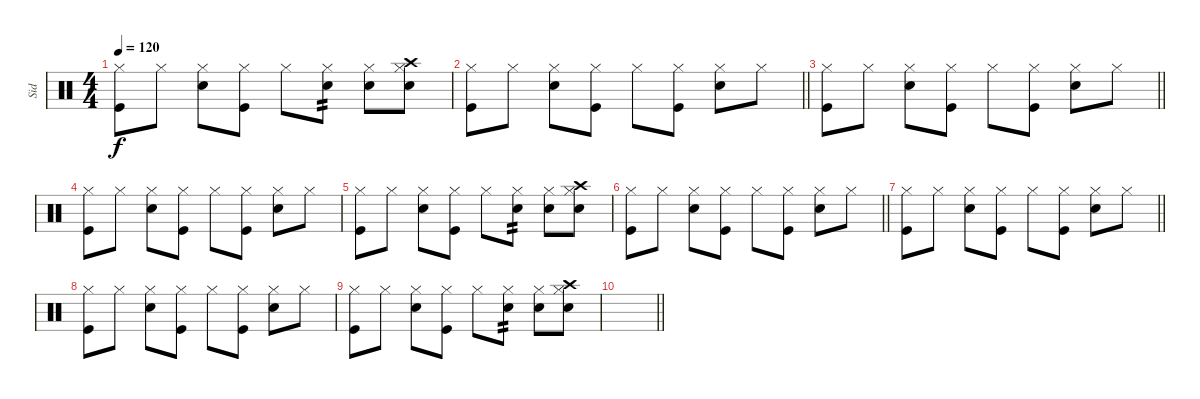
\track ("Sid" "Sid") {instrument percussion}
\staff {score}
\articulation defaults
\ts (4 4)
\tempo 120
\clef neutral
\ks c
("Kick (hit)" "Hi-Hat (closed)").8{dy f} "Hi-Hat (closed)".8 ("Electric Snare (hit)" "Hi-Hat (closed)").8 ("Kick (hit)" "Hi-Hat (closed)").8 "Hi-Hat (closed)".8 ("Snare (hit) 2" "Hi-Hat (closed)").8{tp 2} ("Electric Snare (hit)" "Hi-Hat (closed)").8 ("Snare (hit) 2" "Crash high (hit)" "Hi-Hat (closed)").8 |
\barLineRight lightlight
("Kick (hit)" "Hi-Hat (closed)").8 "Hi-Hat (closed)".8 ("Electric Snare (hit)" "Hi-Hat (closed)").8 ("Kick (hit)" "Hi-Hat (closed)").8 "Hi-Hat (closed)".8 ("Kick (hit)" "Hi-Hat (closed)").8 ("Electric Snare (hit)" "Hi-Hat (closed)").8 "Hi-Hat (closed)".8 |
\barLineRight lightlight
("Kick (hit)" "Hi-Hat (closed)").8 "Hi-Hat (closed)".8 ("Electric Snare (hit)" "Hi-Hat (closed)").8 ("Kick (hit)" "Hi-Hat (closed)").8 "Hi-Hat (closed)".8 ("Kick (hit)" "Hi-Hat (closed)").8 ("Electric Snare (hit)" "Hi-Hat (closed)").8 "Hi-Hat (closed)".8 |
("Kick (hit)" "Hi-Hat (closed)").8 "Hi-Hat (closed)".8 ("Electric Snare (hit)" "Hi-Hat (closed)").8 ("Kick (hit)" "Hi-Hat (closed)").8 "Hi-Hat (closed)".8 ("Kick (hit)" "Hi-Hat (closed)").8 ("Electric Snare (hit)" "Hi-Hat (closed)").8 "Hi-Hat (closed)".8 |
("Kick (hit)" "Hi-Hat (closed)").8 "Hi-Hat (closed)".8 ("Electric Snare (hit)" "Hi-Hat (closed)").8 ("Kick (hit)" "Hi-Hat (closed)").8 "Hi-Hat (closed)".8 ("Snare (hit) 2" "Hi-Hat (closed)").8{tp 2} ("Electric Snare (hit)" "Hi-Hat (closed)").8 ("Snare (hit) 2" "Crash high (hit)" "Hi-Hat (closed)").8 |
\barLineRight lightlight
("Kick (hit)" "Hi-Hat (closed)").8 "Hi-Hat (closed)".8 ("Electric Snare (hit)" "Hi-Hat (closed)").8 ("Kick (hit)" "Hi-Hat (closed)").8 "Hi-Hat (closed)".8 ("Kick (hit)" "Hi-Hat (closed)").8 ("Electric Snare (hit)" "Hi-Hat (closed)").8 "Hi-Hat (closed)".8 |
\barLineRight lightlight
("Kick (hit)" "Hi-Hat (closed)").8 "Hi-Hat (closed)".8 ("Electric Snare (hit)" "Hi-Hat (closed)").8 ("Kick (hit)" "Hi-Hat (closed)").8 "Hi-Hat (closed)".8 ("Kick (hit)" "Hi-Hat (closed)").8 ("Electric Snare (hit)" "Hi-Hat (closed)").8 "Hi-Hat (closed)".8 |
("Kick (hit)" "Hi-Hat (closed)").8 "Hi-Hat (closed)".8 ("Electric Snare (hit)" "Hi-Hat (closed)").8 ("Kick (hit)" "Hi-Hat (closed)").8 "Hi-Hat (closed)".8 ("Kick (hit)" "Hi-Hat (closed)").8 ("Electric Snare (hit)" "Hi-Hat (closed)").8 "Hi-Hat (closed)".8 |
("Kick (hit)" "Hi-Hat (closed)").8 "Hi-Hat (closed)".8 ("Electric Snare (hit)" "Hi-Hat (closed)").8 ("Kick (hit)" "Hi-Hat (closed)").8 "Hi-Hat (closed)".8 ("Snare (hit) 2" "Hi-Hat (closed)").8{tp 2} ("Electric Snare (hit)" "Hi-Hat (closed)").8 ("Snare (hit) 2" "Crash high (hit)" "Hi-Hat (closed)").8 |
\barLineRight lightlight
